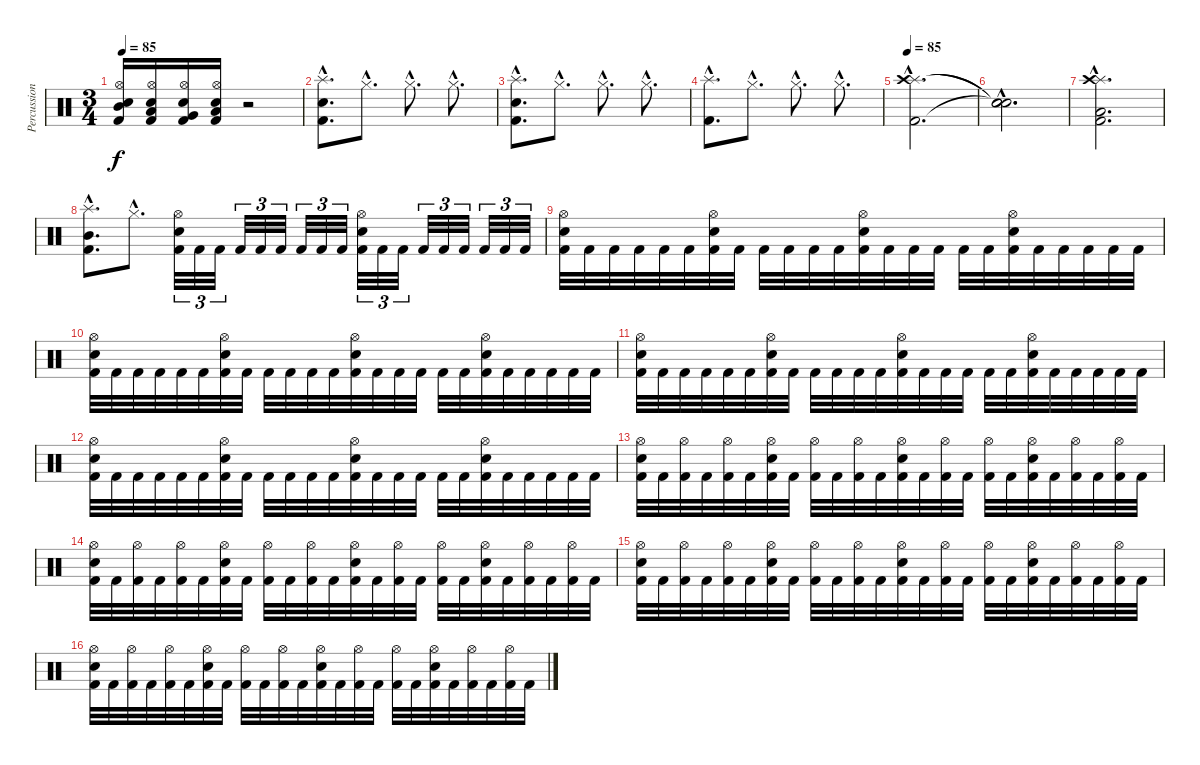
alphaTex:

\track ("Percussion" "Percussion") {instrument percussion}
\staff {score}
\articulation defaults
\ts (3 4)
\tempo 85
\clef neutral
\ks c
("Kick (hit) 2" "Snare (hit) 2" "Hi-Hat (open)" "Mid Tom (hit)").16{dy f} ("Kick (hit) 2" "Snare (hit) 2" "Hi-Hat (open)" "Low Tom (hit)").16 ("Kick (hit) 2" "Snare (hit) 2" "Hi-Hat (open)" "Very Low Tom (hit)").16 ("Kick (hit) 2" "Snare (hit) 2" "Hi-Hat (open)" "Low Floor Tom (hit)").16 r.2 |
("Kick (hit) 2"{hac} "Snare (hit) 2"{hac} "Splash (hit)"{hac}).8{d} "Hi-Hat (closed)"{hac}.8{d} "Hi-Hat (closed)"{hac}.8{d} "Hi-Hat (closed)"{hac}.8{d} |
("Kick (hit) 2"{hac} "Snare (hit) 2"{hac} "Splash (hit)"{hac}).8{d} "Hi-Hat (closed)"{hac}.8{d} "Hi-Hat (closed)"{hac}.8{d} "Hi-Hat (closed)"{hac}.8{d} |
("Kick (hit) 2"{hac} "Splash (hit)"{hac}).8{d} "Hi-Hat (closed)"{hac}.8{d} "Hi-Hat (closed)"{hac}.8{d} "Hi-Hat (closed)"{hac}.8{d} |
\tempo 85
("Kick (hit) 2"{hac} "Splash (hit)"{hac} "Crash high (hit)"{hac}).2{d} |
("Snare (hit)"{hac t} "Snare (hit)"{hac t} "Snare (hit)"{hac t}).2{d} |
("Kick (hit) 2"{hac} "Splash (hit)"{hac} "Crash high (hit)"{hac} "Low Floor Tom (hit)"{hac}).2{d} |
("Kick (hit) 2"{hac} "Splash (hit)"{hac} "Mid Tom (hit)"{hac}).8{d} "Hi-Hat (closed)"{hac}.8{d} ("Kick (hit) 2" "Snare (hit) 2" "Hi-Hat (open)").32{tu (3 2)} "Kick (hit) 2".32{tu (3 2)} "Kick (hit) 2".32{tu (3 2)} "Kick (hit) 2".32{tu (3 2)} "Kick (hit) 2".32{tu (3 2)} "Kick (hit) 2".32{tu (3 2)} "Kick (hit) 2".32{tu (3 2)} "Kick (hit) 2".32{tu (3 2)} "Kick (hit) 2".32{tu (3 2)} ("Kick (hit) 2" "Snare (hit) 2" "Hi-Hat (open)").32{tu (3 2)} "Kick (hit) 2".32{tu (3 2)} "Kick (hit) 2".32{tu (3 2)} "Kick (hit) 2".32{tu (3 2)} "Kick (hit) 2".32{tu (3 2)} "Kick (hit) 2".32{tu (3 2)} "Kick (hit) 2".32{tu (3 2)} "Kick (hit) 2".32{tu (3 2)} "Kick (hit) 2".32{tu (3 2)} |
("Kick (hit) 2" "Snare (hit) 2" "Hi-Hat (open)").32 "Kick (hit) 2".32 "Kick (hit) 2".32 "Kick (hit) 2".32 "Kick (hit) 2".32 "Kick (hit) 2".32 ("Kick (hit) 2" "Snare (hit) 2" "Hi-Hat (open)").32 "Kick (hit) 2".32 "Kick (hit) 2".32 "Kick (hit) 2".32 "Kick (hit) 2".32 "Kick (hit) 2".32 ("Kick (hit) 2" "Snare (hit) 2" "Hi-Hat (open)").32 "Kick (hit) 2".32 "Kick (hit) 2".32 "Kick (hit) 2".32 "Kick (hit) 2".32 "Kick (hit) 2".32 ("Kick (hit) 2" "Snare (hit) 2" "Hi-Hat (open)").32 "Kick (hit) 2".32 "Kick (hit) 2".32 "Kick (hit) 2".32 "Kick (hit) 2".32 "Kick (hit) 2".32 |
("Kick (hit) 2" "Snare (hit) 2" "Hi-Hat (open)").32 "Kick (hit) 2".32 "Kick (hit) 2".32 "Kick (hit) 2".32 "Kick (hit) 2".32 "Kick (hit) 2".32 ("Kick (hit) 2" "Snare (hit) 2" "Hi-Hat (open)").32 "Kick (hit) 2".32 "Kick (hit) 2".32 "Kick (hit) 2".32 "Kick (hit) 2".32 "Kick (hit) 2".32 ("Kick (hit) 2" "Snare (hit) 2" "Hi-Hat (open)").32 "Kick (hit) 2".32 "Kick (hit) 2".32 "Kick (hit) 2".32 "Kick (hit) 2".32 "Kick (hit) 2".32 ("Kick (hit) 2" "Snare (hit) 2" "Hi-Hat (open)").32 "Kick (hit) 2".32 "Kick (hit) 2".32 "Kick (hit) 2".32 "Kick (hit) 2".32 "Kick (hit) 2".32 |
("Kick (hit) 2" "Snare (hit) 2" "Hi-Hat (open)").32 "Kick (hit) 2".32 "Kick (hit) 2".32 "Kick (hit) 2".32 "Kick (hit) 2".32 "Kick (hit) 2".32 ("Kick (hit) 2" "Snare (hit) 2" "Hi-Hat (open)").32 "Kick (hit) 2".32 "Kick (hit) 2".32 "Kick (hit) 2".32 "Kick (hit) 2".32 "Kick (hit) 2".32 ("Kick (hit) 2" "Snare (hit) 2" "Hi-Hat (open)").32 "Kick (hit) 2".32 "Kick (hit) 2".32 "Kick (hit) 2".32 "Kick (hit) 2".32 "Kick (hit) 2".32 ("Kick (hit) 2" "Snare (hit) 2" "Hi-Hat (open)").32 "Kick (hit) 2".32 "Kick (hit) 2".32 "Kick (hit) 2".32 "Kick (hit) 2".32 "Kick (hit) 2".32 |
("Kick (hit) 2" "Snare (hit) 2" "Hi-Hat (open)").32 "Kick (hit) 2".32 "Kick (hit) 2".32 "Kick (hit) 2".32 "Kick (hit) 2".32 "Kick (hit) 2".32 ("Kick (hit) 2" "Snare (hit) 2" "Hi-Hat (open)").32 "Kick (hit) 2".32 "Kick (hit) 2".32 "Kick (hit) 2".32 "Kick (hit) 2".32 "Kick (hit) 2".32 ("Kick (hit) 2" "Snare (hit) 2" "Hi-Hat (open)").32 "Kick (hit) 2".32 "Kick (hit) 2".32 "Kick (hit) 2".32 "Kick (hit) 2".32 "Kick (hit) 2".32 ("Kick (hit) 2" "Snare (hit) 2" "Hi-Hat (open)").32 "Kick (hit) 2".32 "Kick (hit) 2".32 "Kick (hit) 2".32 "Kick (hit) 2".32 "Kick (hit) 2".32 |
("Kick (hit) 2" "Snare (hit) 2" "Hi-Hat (open)").32 "Kick (hit) 2".32 ("Kick (hit) 2" "Hi-Hat (open)").32 "Kick (hit) 2".32 ("Kick (hit) 2" "Hi-Hat (open)").32 "Kick (hit) 2".32 ("Kick (hit) 2" "Snare (hit) 2" "Hi-Hat (open)").32 "Kick (hit) 2".32 ("Kick (hit) 2" "Hi-Hat (open)").32 "Kick (hit) 2".32 ("Kick (hit) 2" "Hi-Hat (open)").32 "Kick (hit) 2".32 ("Kick (hit) 2" "Snare (hit) 2" "Hi-Hat (open)").32 "Kick (hit) 2".32 ("Kick (hit) 2" "Hi-Hat (open)").32 "Kick (hit) 2".32 ("Kick (hit) 2" "Hi-Hat (open)").32 "Kick (hit) 2".32 ("Kick (hit) 2" "Snare (hit) 2" "Hi-Hat (open)").32 "Kick (hit) 2".32 ("Kick (hit) 2" "Hi-Hat (open)").32 "Kick (hit) 2".32 ("Kick (hit) 2" "Hi-Hat (open)").32 "Kick (hit) 2".32 |
("Kick (hit) 2" "Snare (hit) 2" "Hi-Hat (open)").32 "Kick (hit) 2".32 ("Kick (hit) 2" "Hi-Hat (open)").32 "Kick (hit) 2".32 ("Kick (hit) 2" "Hi-Hat (open)").32 "Kick (hit) 2".32 ("Kick (hit) 2" "Snare (hit) 2" "Hi-Hat (open)").32 "Kick (hit) 2".32 ("Kick (hit) 2" "Hi-Hat (open)").32 "Kick (hit) 2".32 ("Kick (hit) 2" "Hi-Hat (open)").32 "Kick (hit) 2".32 ("Kick (hit) 2" "Snare (hit) 2" "Hi-Hat (open)").32 "Kick (hit) 2".32 ("Kick (hit) 2" "Hi-Hat (open)").32 "Kick (hit) 2".32 ("Kick (hit) 2" "Hi-Hat (open)").32 "Kick (hit) 2".32 ("Kick (hit) 2" "Snare (hit) 2" "Hi-Hat (open)").32 "Kick (hit) 2".32 ("Kick (hit) 2" "Hi-Hat (open)").32 "Kick (hit) 2".32 ("Kick (hit) 2" "Hi-Hat (open)").32 "Kick (hit) 2".32 |
("Kick (hit) 2" "Snare (hit) 2" "Hi-Hat (open)").32 "Kick (hit) 2".32 ("Kick (hit) 2" "Hi-Hat (open)").32 "Kick (hit) 2".32 ("Kick (hit) 2" "Hi-Hat (open)").32 "Kick (hit) 2".32 ("Kick (hit) 2" "Snare (hit) 2" "Hi-Hat (open)").32 "Kick (hit) 2".32 ("Kick (hit) 2" "Hi-Hat (open)").32 "Kick (hit) 2".32 ("Kick (hit) 2" "Hi-Hat (open)").32 "Kick (hit) 2".32 ("Kick (hit) 2" "Snare (hit) 2" "Hi-Hat (open)").32 "Kick (hit) 2".32 ("Kick (hit) 2" "Hi-Hat (open)").32 "Kick (hit) 2".32 ("Kick (hit) 2" "Hi-Hat (open)").32 "Kick (hit) 2".32 ("Kick (hit) 2" "Snare (hit) 2" "Hi-Hat (open)").32 "Kick (hit) 2".32 ("Kick (hit) 2" "Hi-Hat (open)").32 "Kick (hit) 2".32 ("Kick (hit) 2" "Hi-Hat (open)").32 "Kick (hit) 2".32 |
("Kick (hit) 2" "Snare (hit) 2" "Hi-Hat (open)").32 "Kick (hit) 2".32 ("Kick (hit) 2" "Hi-Hat (open)").32 "Kick (hit) 2".32 ("Kick (hit) 2" "Hi-Hat (open)").32 "Kick (hit) 2".32 ("Kick (hit) 2" "Snare (hit) 2" "Hi-Hat (open)").32 "Kick (hit) 2".32 ("Kick (hit) 2" "Hi-Hat (open)").32 "Kick (hit) 2".32 ("Kick (hit) 2" "Hi-Hat (open)").32 "Kick (hit) 2".32 ("Kick (hit) 2" "Snare (hit) 2" "Hi-Hat (open)").32 "Kick (hit) 2".32 ("Kick (hit) 2" "Hi-Hat (open)").32 "Kick (hit) 2".32 ("Kick (hit) 2" "Hi-Hat (open)").32 "Kick (hit) 2".32 ("Kick (hit) 2" "Snare (hit) 2" "Hi-Hat (open)").32 "Kick (hit) 2".32 ("Kick (hit) 2" "Hi-Hat (open)").32 "Kick (hit) 2".32 ("Kick (hit) 2" "Hi-Hat (open)").32 "Kick (hit) 2".32
